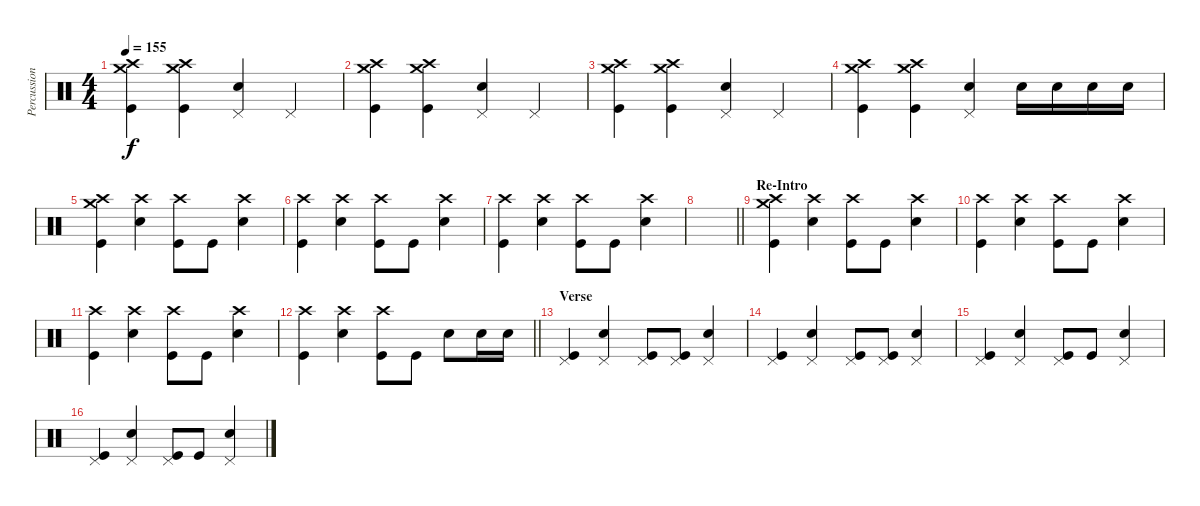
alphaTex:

\track ("Percussion" "Percussion") {instrument percussion}
\staff {score}
\articulation defaults
\ts (4 4)
\tempo 155
\clef neutral
\ks c
("Crash high (hit)" "Crash medium (hit)" "Kick (hit)").4{dy f} ("Crash high (hit)" "Crash medium (hit)" "Kick (hit)").4 ("Pedal Hi-Hat (hit)" "Electric Snare (hit)").4 "Pedal Hi-Hat (hit)".4 |
("Crash high (hit)" "Crash medium (hit)" "Kick (hit)").4 ("Crash high (hit)" "Crash medium (hit)" "Kick (hit)").4 ("Pedal Hi-Hat (hit)" "Electric Snare (hit)").4 "Pedal Hi-Hat (hit)".4 |
("Crash high (hit)" "Crash medium (hit)" "Kick (hit)").4 ("Crash high (hit)" "Crash medium (hit)" "Kick (hit)").4 ("Pedal Hi-Hat (hit)" "Electric Snare (hit)").4 "Pedal Hi-Hat (hit)".4 |
("Crash high (hit)" "Crash medium (hit)" "Kick (hit)").4 ("Crash high (hit)" "Crash medium (hit)" "Kick (hit)").4 ("Pedal Hi-Hat (hit)" "Electric Snare (hit)").4 "Electric Snare (hit)".16 "Electric Snare (hit)".16 "Electric Snare (hit)".16 "Electric Snare (hit)".16 |
("Crash high (hit)" "Crash medium (hit)" "Kick (hit)").4 ("Crash high (hit)" "Electric Snare (hit)").4 ("Crash high (hit)" "Kick (hit)").8 "Kick (hit)".8 ("Crash high (hit)" "Electric Snare (hit)").4 |
("Crash high (hit)" "Kick (hit)").4 ("Crash high (hit)" "Electric Snare (hit)").4 ("Crash high (hit)" "Kick (hit)").8 "Kick (hit)".8 ("Crash high (hit)" "Electric Snare (hit)").4 |
("Crash high (hit)" "Kick (hit)").4 ("Crash high (hit)" "Electric Snare (hit)").4 ("Crash high (hit)" "Kick (hit)").8 "Kick (hit)".8 ("Crash high (hit)" "Electric Snare (hit)").4 |
\barLineRight lightlight
|
\section ("" "Re-Intro")
("Crash high (hit)" "Crash medium (hit)" "Kick (hit)").4 ("Crash high (hit)" "Electric Snare (hit)").4 ("Crash high (hit)" "Kick (hit)").8 "Kick (hit)".8 ("Crash high (hit)" "Electric Snare (hit)").4 |
("Crash high (hit)" "Kick (hit)").4 ("Crash high (hit)" "Electric Snare (hit)").4 ("Crash high (hit)" "Kick (hit)").8 "Kick (hit)".8 ("Crash high (hit)" "Electric Snare (hit)").4 |
("Crash high (hit)" "Kick (hit)").4 ("Crash high (hit)" "Electric Snare (hit)").4 ("Crash high (hit)" "Kick (hit)").8 "Kick (hit)".8 ("Crash high (hit)" "Electric Snare (hit)").4 |
\barLineRight lightlight
("Crash high (hit)" "Kick (hit)").4 ("Crash high (hit)" "Electric Snare (hit)").4 ("Crash high (hit)" "Kick (hit)").8 "Kick (hit)".8 "Electric Snare (hit)".8 "Electric Snare (hit)".16 "Electric Snare (hit)".16 |
\section ("" "Verse")
("Pedal Hi-Hat (hit)" "Kick (hit)").4 ("Pedal Hi-Hat (hit)" "Electric Snare (hit)").4 ("Pedal Hi-Hat (hit)" "Kick (hit)").8 ("Pedal Hi-Hat (hit)" "Kick (hit)").8 ("Pedal Hi-Hat (hit)" "Electric Snare (hit)").4 |
("Pedal Hi-Hat (hit)" "Kick (hit)").4 ("Pedal Hi-Hat (hit)" "Electric Snare (hit)").4 ("Pedal Hi-Hat (hit)" "Kick (hit)").8 ("Pedal Hi-Hat (hit)" "Kick (hit)").8 ("Pedal Hi-Hat (hit)" "Electric Snare (hit)").4 |
("Pedal Hi-Hat (hit)" "Kick (hit)").4 ("Pedal Hi-Hat (hit)" "Electric Snare (hit)").4 ("Pedal Hi-Hat (hit)" "Kick (hit)").8 "Kick (hit)".8 ("Pedal Hi-Hat (hit)" "Electric Snare (hit)").4 |
("Pedal Hi-Hat (hit)" "Kick (hit)").4 ("Pedal Hi-Hat (hit)" "Electric Snare (hit)").4 ("Pedal Hi-Hat (hit)" "Kick (hit)").8 "Kick (hit)".8 ("Pedal Hi-Hat (hit)" "Electric Snare (hit)").4
